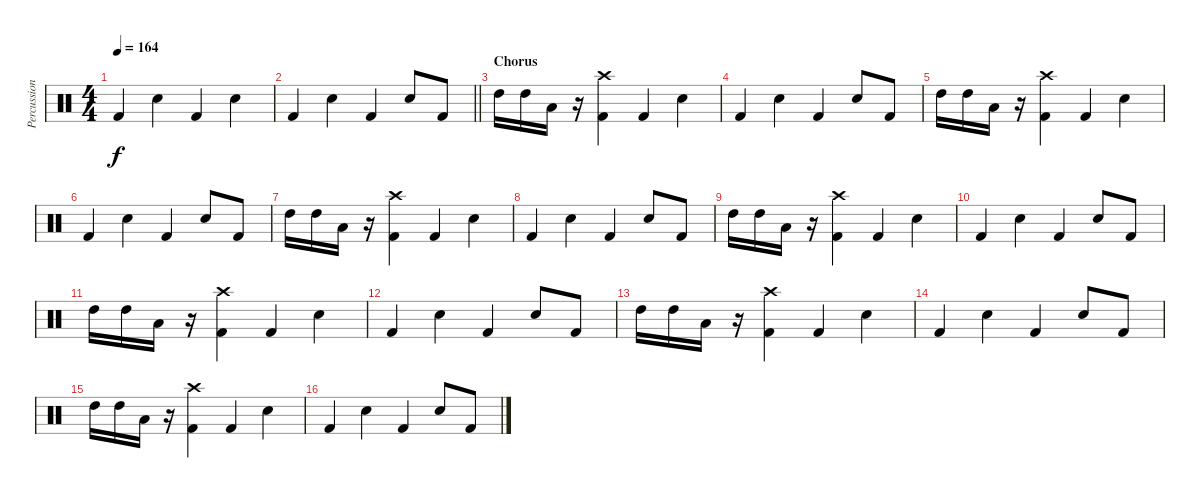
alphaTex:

\track ("Percussions" "Percussion") {instrument percussion}
\staff {score}
\articulation defaults
\ts (4 4)
\tempo 164
\clef neutral
\ks c "Kick (hit) 2".4{dy f} "Snare (hit) 2".4 "Kick (hit) 2".4 "Snare (hit) 2".4
|
\barLineRight lightlight "Kick (hit) 2".4 "Snare (hit) 2".4 "Kick (hit) 2".4 "Snare (hit) 2".8 "Kick (hit) 2".8
|
\section ("" "Chorus")
"High Tom (hit)".16 "High Tom (hit)".16 "Low Tom (hit)".16 r.16 ("Crash high (hit)" "Kick (hit) 2").4 "Kick (hit) 2".4 "Snare (hit) 2".4 |
"Kick (hit) 2".4 "Snare (hit) 2".4 "Kick (hit) 2".4 "Snare (hit) 2".8 "Kick (hit) 2".8 |
"High Tom (hit)".16 "High Tom (hit)".16 "Low Tom (hit)".16 r.16 ("Crash high (hit)" "Kick (hit) 2").4 "Kick (hit) 2".4 "Snare (hit) 2".4 |
"Kick (hit) 2".4 "Snare (hit) 2".4 "Kick (hit) 2".4 "Snare (hit) 2".8 "Kick (hit) 2".8 |
"High Tom (hit)".16 "High Tom (hit)".16 "Low Tom (hit)".16 r.16 ("Crash high (hit)" "Kick (hit) 2").4 "Kick (hit) 2".4 "Snare (hit) 2".4 |
"Kick (hit) 2".4 "Snare (hit) 2".4 "Kick (hit) 2".4 "Snare (hit) 2".8 "Kick (hit) 2".8 |
"High Tom (hit)".16 "High Tom (hit)".16 "Low Tom (hit)".16 r.16 ("Crash high (hit)" "Kick (hit) 2").4 "Kick (hit) 2".4 "Snare (hit) 2".4 |
"Kick (hit) 2".4 "Snare (hit) 2".4 "Kick (hit) 2".4 "Snare (hit) 2".8 "Kick (hit) 2".8 |
"High Tom (hit)".16 "High Tom (hit)".16 "Low Tom (hit)".16 r.16 ("Crash high (hit)" "Kick (hit) 2").4 "Kick (hit) 2".4 "Snare (hit) 2".4 |
"Kick (hit) 2".4 "Snare (hit) 2".4 "Kick (hit) 2".4 "Snare (hit) 2".8 "Kick (hit) 2".8 |
"High Tom (hit)".16 "High Tom (hit)".16 "Low Tom (hit)".16 r.16 ("Crash high (hit)" "Kick (hit) 2").4 "Kick (hit) 2".4 "Snare (hit) 2".4 |
"Kick (hit) 2".4 "Snare (hit) 2".4 "Kick (hit) 2".4 "Snare (hit) 2".8 "Kick (hit) 2".8 |
"High Tom (hit)".16 "High Tom (hit)".16 "Low Tom (hit)".16 r.16 ("Crash high (hit)" "Kick (hit) 2").4 "Kick (hit) 2".4 "Snare (hit) 2".4 |
"Kick (hit) 2".4 "Snare (hit) 2".4 "Kick (hit) 2".4 "Snare (hit) 2".8 "Kick (hit) 2".8
